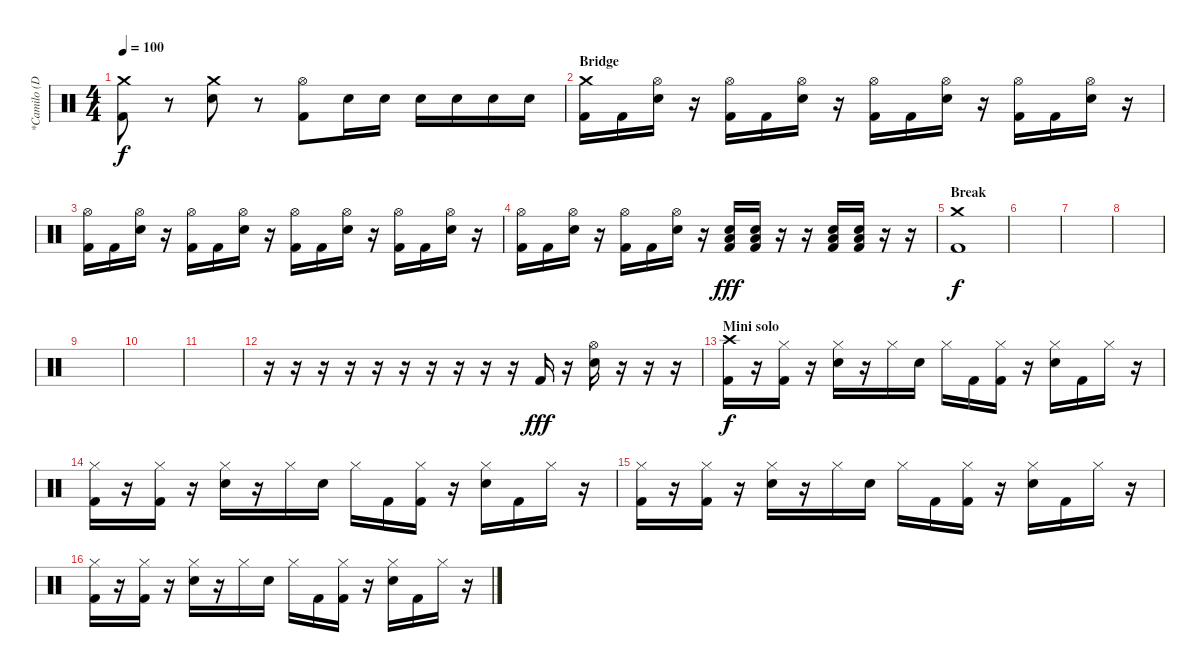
\track ("*Camilo (Drums)" "*Camilo (D") {instrument percussion}
\staff {score}
\articulation defaults
\ts (4 4)
\tempo 100
\clef neutral
\ks c
("Crash medium (hit)" "Kick (hit) 2").8{dy f} r.8 ("Crash medium (hit)" "Electric Snare (hit)").8 r.8 ("Hi-Hat (open)" "Kick (hit) 2").8 "Electric Snare (hit)".16 "Electric Snare (hit)".16 "Electric Snare (hit)".16 "Electric Snare (hit)".16 "Electric Snare (hit)".16 "Electric Snare (hit)".16 |
\section ("" "Bridge")
("Crash medium (hit)" "Kick (hit) 2").16 "Kick (hit) 2".16 ("Hi-Hat (open)" "Electric Snare (hit)").16 r.16 ("Hi-Hat (open)" "Kick (hit) 2").16 "Kick (hit) 2".16 ("Hi-Hat (open)" "Electric Snare (hit)").16 r.16 ("Hi-Hat (open)" "Kick (hit) 2").16 "Kick (hit) 2".16 ("Hi-Hat (open)" "Electric Snare (hit)").16 r.16 ("Hi-Hat (open)" "Kick (hit) 2").16 "Kick (hit) 2".16 ("Hi-Hat (open)" "Electric Snare (hit)").16 r.16 |
("Hi-Hat (open)" "Kick (hit) 2").16 "Kick (hit) 2".16 ("Hi-Hat (open)" "Electric Snare (hit)").16 r.16 ("Hi-Hat (open)" "Kick (hit) 2").16 "Kick (hit) 2".16 ("Hi-Hat (open)" "Electric Snare (hit)").16 r.16 ("Hi-Hat (open)" "Kick (hit) 2").16 "Kick (hit) 2".16 ("Hi-Hat (open)" "Electric Snare (hit)").16 r.16 ("Hi-Hat (open)" "Kick (hit) 2").16 "Kick (hit) 2".16 ("Hi-Hat (open)" "Electric Snare (hit)").16 r.16 |
("Hi-Hat (open)" "Kick (hit) 2").16 "Kick (hit) 2".16 ("Hi-Hat (open)" "Electric Snare (hit)").16 r.16 ("Hi-Hat (open)" "Kick (hit) 2").16 "Kick (hit) 2".16 ("Hi-Hat (open)" "Electric Snare (hit)").16 r.16 ("Electric Snare (hit)" "Low Floor Tom (hit)" "Kick (hit) 2").16{dy fff} ("Electric Snare (hit)" "Low Floor Tom (hit)" "Kick (hit) 2").16 r.16 r.16 ("Electric Snare (hit)" "Low Floor Tom (hit)" "Kick (hit) 2").16 ("Electric Snare (hit)" "Low Floor Tom (hit)" "Kick (hit) 2").16 r.16 r.16 |
\section ("" "Break")
("Crash medium (hit)" "Kick (hit) 2").1{dy f} |
|
|
|
|
|
|
r.16 r.16 r.16 r.16 r.16 r.16 r.16 r.16 r.16 r.16 "Kick (hit) 2".16{dy fff} r.16 ("Hi-Hat (open)" "Electric Snare (hit)").16 r.16 r.16 r.16 |
\section ("" "Mini solo")
("Crash high (hit)" "Kick (hit) 2").16{dy f} r.16 ("Hi-Hat (closed)" "Kick (hit) 2").16 r.16 ("Hi-Hat (closed)" "Electric Snare (hit)").16 r.16 "Hi-Hat (closed)".16 "Electric Snare (hit)".16 "Hi-Hat (closed)".16 "Kick (hit) 2".16 ("Hi-Hat (closed)" "Kick (hit) 2").16 r.16 ("Hi-Hat (closed)" "Electric Snare (hit)").16 "Kick (hit) 2".16 "Hi-Hat (closed)".16 r.16 |
("Hi-Hat (closed)" "Kick (hit) 2").16 r.16 ("Hi-Hat (closed)" "Kick (hit) 2").16 r.16 ("Hi-Hat (closed)" "Electric Snare (hit)").16 r.16 "Hi-Hat (closed)".16 "Electric Snare (hit)".16 "Hi-Hat (closed)".16 "Kick (hit) 2".16 ("Hi-Hat (closed)" "Kick (hit) 2").16 r.16 ("Hi-Hat (closed)" "Electric Snare (hit)").16 "Kick (hit) 2".16 "Hi-Hat (closed)".16 r.16 |
("Hi-Hat (closed)" "Kick (hit) 2").16 r.16 ("Hi-Hat (closed)" "Kick (hit) 2").16 r.16 ("Hi-Hat (closed)" "Electric Snare (hit)").16 r.16 "Hi-Hat (closed)".16 "Electric Snare (hit)".16 "Hi-Hat (closed)".16 "Kick (hit) 2".16 ("Hi-Hat (closed)" "Kick (hit) 2").16 r.16 ("Hi-Hat (closed)" "Electric Snare (hit)").16 "Kick (hit) 2".16 "Hi-Hat (closed)".16 r.16 |
("Hi-Hat (closed)" "Kick (hit) 2").16 r.16 ("Hi-Hat (closed)" "Kick (hit) 2").16 r.16 ("Hi-Hat (closed)" "Electric Snare (hit)").16 r.16 "Hi-Hat (closed)".16 "Electric Snare (hit)".16 "Hi-Hat (closed)".16 "Kick (hit) 2".16 ("Hi-Hat (closed)" "Kick (hit) 2").16 r.16 ("Hi-Hat (closed)" "Electric Snare (hit)").16 "Kick (hit) 2".16 "Hi-Hat (closed)".16 r.16
